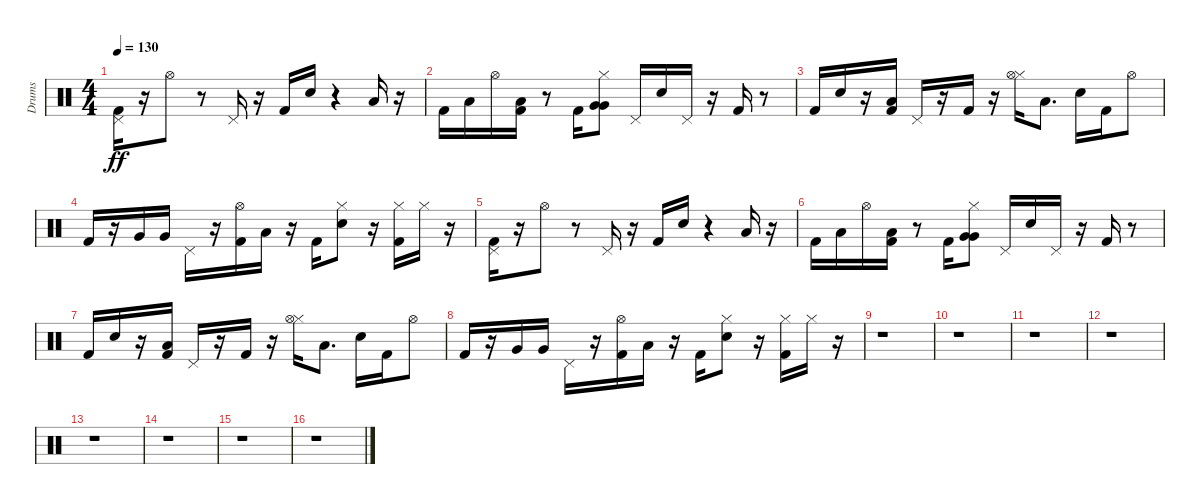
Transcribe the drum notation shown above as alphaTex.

\track ("Drums" "Drums") {instrument percussion}
\staff {score}
\articulation defaults
\ts (4 4)
\tempo 130
\clef neutral
\ks c
("Kick (hit) 2" "Pedal Hi-Hat (hit)").16{dy ff} r.16 "Hi-Hat (open)".8 r.8 "Pedal Hi-Hat (hit)".16 r.16 "Kick (hit) 2".16 "Electric Snare (hit)".16 r.4 "Low Tom (hit)".16 r.16 |
"Kick (hit) 2".16 "Low Floor Tom (hit)".16 "Hi-Hat (open)".16 ("Kick (hit) 2" "Low Tom (hit)").16 r.8 "Kick (hit) 2".16 ("Hi-Hat (closed)" "Very Low Tom (hit)" "Very Low Tom (hit)").8 "Pedal Hi-Hat (hit)".16 "Electric Snare (hit)".16 "Pedal Hi-Hat (hit)".16 r.16 "Kick (hit) 2".16 r.8 |
"Kick (hit) 2".16 "Snare (hit) 2".16 r.16 ("Kick (hit) 2" "Low Floor Tom (hit)").16 "Pedal Hi-Hat (hit)".16 r.16 "Kick (hit) 2".16 r.16 ("Hi-Hat (closed)" "Hi-Hat (open)").16 "Low Tom (hit)".8{d} "Electric Snare (hit)".16 "Kick (hit) 2".16 "Hi-Hat (open)".8 |
"Kick (hit) 2".16 r.16 "Very Low Tom (hit)".16 "Very Low Tom (hit)".16 "Pedal Hi-Hat (hit)".16 r.16 ("Kick (hit) 2" "Hi-Hat (open)").16 "Low Tom (hit)".16 r.16 "Kick (hit) 2".16 ("Electric Snare (hit)" "Hi-Hat (closed)").8 r.16 ("Kick (hit) 2" "Hi-Hat (closed)").16 "Hi-Hat (closed)".16 r.16 |
("Kick (hit) 2" "Pedal Hi-Hat (hit)").16 r.16 "Hi-Hat (open)".8 r.8 "Pedal Hi-Hat (hit)".16 r.16 "Kick (hit) 2".16 "Electric Snare (hit)".16 r.4 "Low Tom (hit)".16 r.16 |
"Kick (hit) 2".16 "Low Floor Tom (hit)".16 "Hi-Hat (open)".16 ("Kick (hit) 2" "Low Tom (hit)").16 r.8 "Kick (hit) 2".16 ("Hi-Hat (closed)" "Very Low Tom (hit)" "Very Low Tom (hit)").8 "Pedal Hi-Hat (hit)".16 "Electric Snare (hit)".16 "Pedal Hi-Hat (hit)".16 r.16 "Kick (hit) 2".16 r.8 |
"Kick (hit) 2".16 "Snare (hit) 2".16 r.16 ("Kick (hit) 2" "Low Floor Tom (hit)").16 "Pedal Hi-Hat (hit)".16 r.16 "Kick (hit) 2".16 r.16 ("Hi-Hat (closed)" "Hi-Hat (open)").16 "Low Tom (hit)".8{d} "Electric Snare (hit)".16 "Kick (hit) 2".16 "Hi-Hat (open)".8 |
"Kick (hit) 2".16 r.16 "Very Low Tom (hit)".16 "Very Low Tom (hit)".16 "Pedal Hi-Hat (hit)".16 r.16 ("Kick (hit) 2" "Hi-Hat (open)").16 "Low Tom (hit)".16 r.16 "Kick (hit) 2".16 ("Electric Snare (hit)" "Hi-Hat (closed)").8 r.16 ("Kick (hit) 2" "Hi-Hat (closed)").16 "Hi-Hat (closed)".16 r.16 |
r.1 |
r.1 |
r.1 |
r.1 |
r.1 |
r.1 |
r.1 |
r.1
